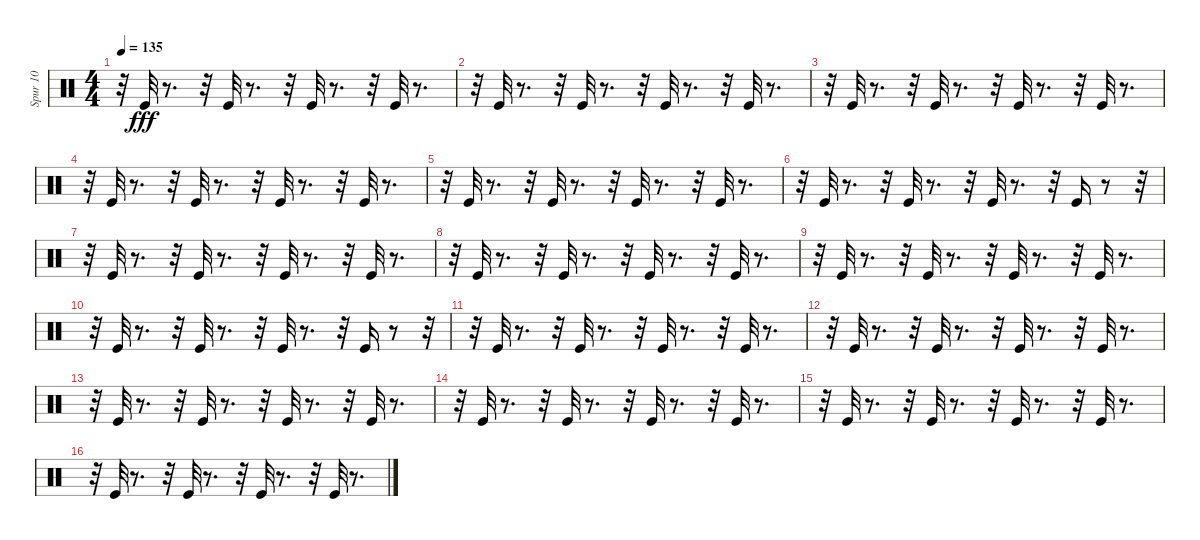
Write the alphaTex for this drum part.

\track ("Spur 10" "Spur 10") {instrument percussion}
\staff {score}
\articulation defaults
\ts (4 4)
\tempo 135
\clef neutral
\ks c
r.32{dy fff} "Kick (hit)".32 r.8{d} r.32 "Kick (hit)".32 r.8{d} r.32 "Kick (hit)".32 r.8{d} r.32 "Kick (hit)".32 r.8{d} |
r.32 "Kick (hit)".32 r.8{d} r.32 "Kick (hit)".32 r.8{d} r.32 "Kick (hit)".32 r.8{d} r.32 "Kick (hit)".32 r.8{d} |
r.32 "Kick (hit)".32 r.8{d} r.32 "Kick (hit)".32 r.8{d} r.32 "Kick (hit)".32 r.8{d} r.32 "Kick (hit)".32 r.8{d} |
r.32 "Kick (hit)".32 r.8{d} r.32 "Kick (hit)".32 r.8{d} r.32 "Kick (hit)".32 r.8{d} r.32 "Kick (hit)".32 r.8{d} |
r.32 "Kick (hit)".32 r.8{d} r.32 "Kick (hit)".32 r.8{d} r.32 "Kick (hit)".32 r.8{d} r.32 "Kick (hit)".32 r.8{d} |
r.32 "Kick (hit)".32 r.8{d} r.32 "Kick (hit)".32 r.8{d} r.32 "Kick (hit)".32 r.8{d} r.32 "Kick (hit)".16 r.8 r.32 |
r.32 "Kick (hit)".32 r.8{d} r.32 "Kick (hit)".32 r.8{d} r.32 "Kick (hit)".32 r.8{d} r.32 "Kick (hit)".32 r.8{d} |
r.32 "Kick (hit)".32 r.8{d} r.32 "Kick (hit)".32 r.8{d} r.32 "Kick (hit)".32 r.8{d} r.32 "Kick (hit)".32 r.8{d} |
r.32 "Kick (hit)".32 r.8{d} r.32 "Kick (hit)".32 r.8{d} r.32 "Kick (hit)".32 r.8{d} r.32 "Kick (hit)".32 r.8{d} |
r.32 "Kick (hit)".32 r.8{d} r.32 "Kick (hit)".32 r.8{d} r.32 "Kick (hit)".32 r.8{d} r.32 "Kick (hit)".16 r.8 r.32 |
r.32 "Kick (hit)".32 r.8{d} r.32 "Kick (hit)".32 r.8{d} r.32 "Kick (hit)".32 r.8{d} r.32 "Kick (hit)".32 r.8{d} |
r.32 "Kick (hit)".32 r.8{d} r.32 "Kick (hit)".32 r.8{d} r.32 "Kick (hit)".32 r.8{d} r.32 "Kick (hit)".32 r.8{d} |
r.32 "Kick (hit)".32 r.8{d} r.32 "Kick (hit)".32 r.8{d} r.32 "Kick (hit)".32 r.8{d} r.32 "Kick (hit)".32 r.8{d} |
r.32 "Kick (hit)".32 r.8{d} r.32 "Kick (hit)".32 r.8{d} r.32 "Kick (hit)".32 r.8{d} r.32 "Kick (hit)".32 r.8{d} |
r.32 "Kick (hit)".32 r.8{d} r.32 "Kick (hit)".32 r.8{d} r.32 "Kick (hit)".32 r.8{d} r.32 "Kick (hit)".32 r.8{d} |
r.32 "Kick (hit)".32 r.8{d} r.32 "Kick (hit)".32 r.8{d} r.32 "Kick (hit)".32 r.8{d} r.32 "Kick (hit)".32 r.8{d}
